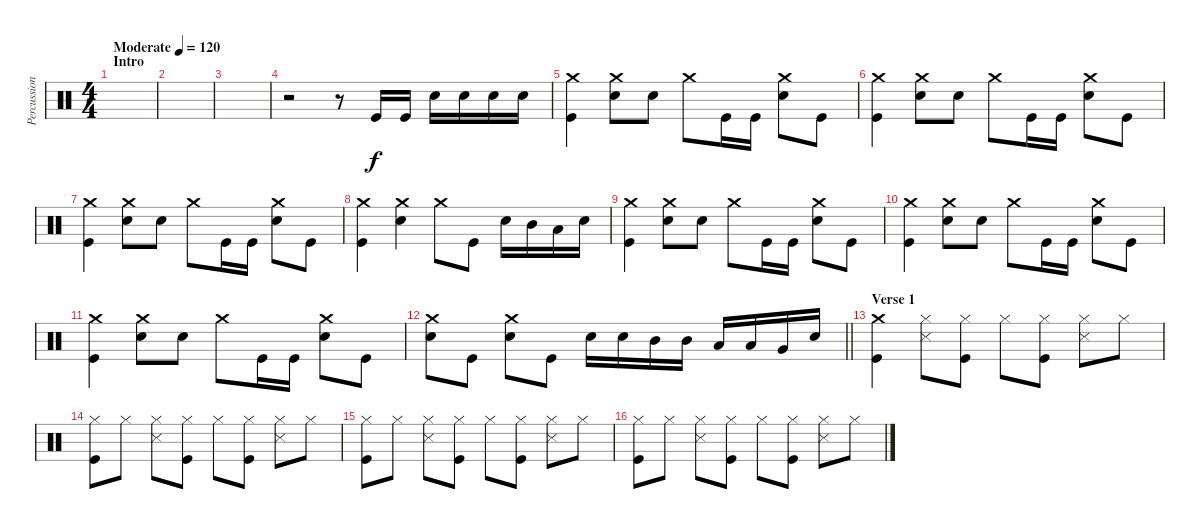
\track ("Percussion" "Percussion") {instrument percussion}
\staff {score}
\articulation defaults
\ts (4 4)
\section ("" "Intro")
\tempo (120 "Moderate")
\clef neutral
\ks c
|
|
|
r.2 r.8 "Kick (hit)".16 "Kick (hit)".16 "Snare (hit) 2".16 "Snare (hit) 2".16 "Snare (hit) 2".16 "Snare (hit) 2".16 |
("Crash medium (hit)" "Kick (hit)").4 ("Crash medium (hit)" "Snare (hit) 2").8 "Snare (hit) 2".8 "Crash medium (hit)".8 "Kick (hit)".16 "Kick (hit)".16 ("Crash medium (hit)" "Snare (hit) 2").8 "Kick (hit)".8 |
("Crash medium (hit)" "Kick (hit)").4 ("Crash medium (hit)" "Snare (hit) 2").8 "Snare (hit) 2".8 "Crash medium (hit)".8 "Kick (hit)".16 "Kick (hit)".16 ("Crash medium (hit)" "Snare (hit) 2").8 "Kick (hit)".8 |
("Crash medium (hit)" "Kick (hit)").4 ("Crash medium (hit)" "Snare (hit) 2").8 "Snare (hit) 2".8 "Crash medium (hit)".8 "Kick (hit)".16 "Kick (hit)".16 ("Crash medium (hit)" "Snare (hit) 2").8 "Kick (hit)".8 |
("Crash medium (hit)" "Kick (hit)").4 ("Crash medium (hit)" "Snare (hit) 2").4 "Crash medium (hit)".8 "Kick (hit)".8 "Snare (hit) 2".16 "Mid Tom (hit)".16 "Low Tom (hit)".16 "Snare (hit) 2".16 |
("Crash medium (hit)" "Kick (hit)").4 ("Crash medium (hit)" "Snare (hit) 2").8 "Snare (hit) 2".8 "Crash medium (hit)".8 "Kick (hit)".16 "Kick (hit)".16 ("Crash medium (hit)" "Snare (hit) 2").8 "Kick (hit)".8 |
("Crash medium (hit)" "Kick (hit)").4 ("Crash medium (hit)" "Snare (hit) 2").8 "Snare (hit) 2".8 "Crash medium (hit)".8 "Kick (hit)".16 "Kick (hit)".16 ("Crash medium (hit)" "Snare (hit) 2").8 "Kick (hit)".8 |
("Crash medium (hit)" "Kick (hit)").4 ("Crash medium (hit)" "Snare (hit) 2").8 "Snare (hit) 2".8 "Crash medium (hit)".8 "Kick (hit)".16 "Kick (hit)".16 ("Crash medium (hit)" "Snare (hit) 2").8 "Kick (hit)".8 |
\barLineRight lightlight
("Crash medium (hit)" "Snare (hit) 2").8 "Kick (hit)".8 ("Crash medium (hit)" "Snare (hit) 2").8 "Kick (hit)".8 "Snare (hit) 2".16 "Snare (hit) 2".16 "Mid Tom (hit)".16 "Mid Tom (hit)".16 "Low Tom (hit)".16 "Low Tom (hit)".16 "Very Low Tom (hit)".16 "Snare (hit) 2".16 |
\section ("" "Verse 1")
("Crash medium (hit)" "Kick (hit)").4 ("Hi-Hat (closed)" "Snare (side stick) 3").8 ("Hi-Hat (closed)" "Kick (hit)").8 "Hi-Hat (closed)".8 ("Hi-Hat (closed)" "Kick (hit)").8 ("Hi-Hat (closed)" "Snare (side stick) 3").8 "Hi-Hat (closed)".8 |
("Hi-Hat (closed)" "Kick (hit)").8 "Hi-Hat (closed)".8 ("Hi-Hat (closed)" "Snare (side stick) 3").8 ("Hi-Hat (closed)" "Kick (hit)").8 "Hi-Hat (closed)".8 ("Hi-Hat (closed)" "Kick (hit)").8 ("Hi-Hat (closed)" "Snare (side stick) 3").8 "Hi-Hat (closed)".8 |
("Hi-Hat (closed)" "Kick (hit)").8 "Hi-Hat (closed)".8 ("Hi-Hat (closed)" "Snare (side stick) 3").8 ("Hi-Hat (closed)" "Kick (hit)").8 "Hi-Hat (closed)".8 ("Hi-Hat (closed)" "Kick (hit)").8 ("Hi-Hat (closed)" "Snare (side stick) 3").8 "Hi-Hat (closed)".8 |
("Hi-Hat (closed)" "Kick (hit)").8 "Hi-Hat (closed)".8 ("Hi-Hat (closed)" "Snare (side stick) 3").8 ("Hi-Hat (closed)" "Kick (hit)").8 "Hi-Hat (closed)".8 ("Hi-Hat (closed)" "Kick (hit)").8 ("Hi-Hat (closed)" "Snare (side stick) 3").8 "Hi-Hat (closed)".8
